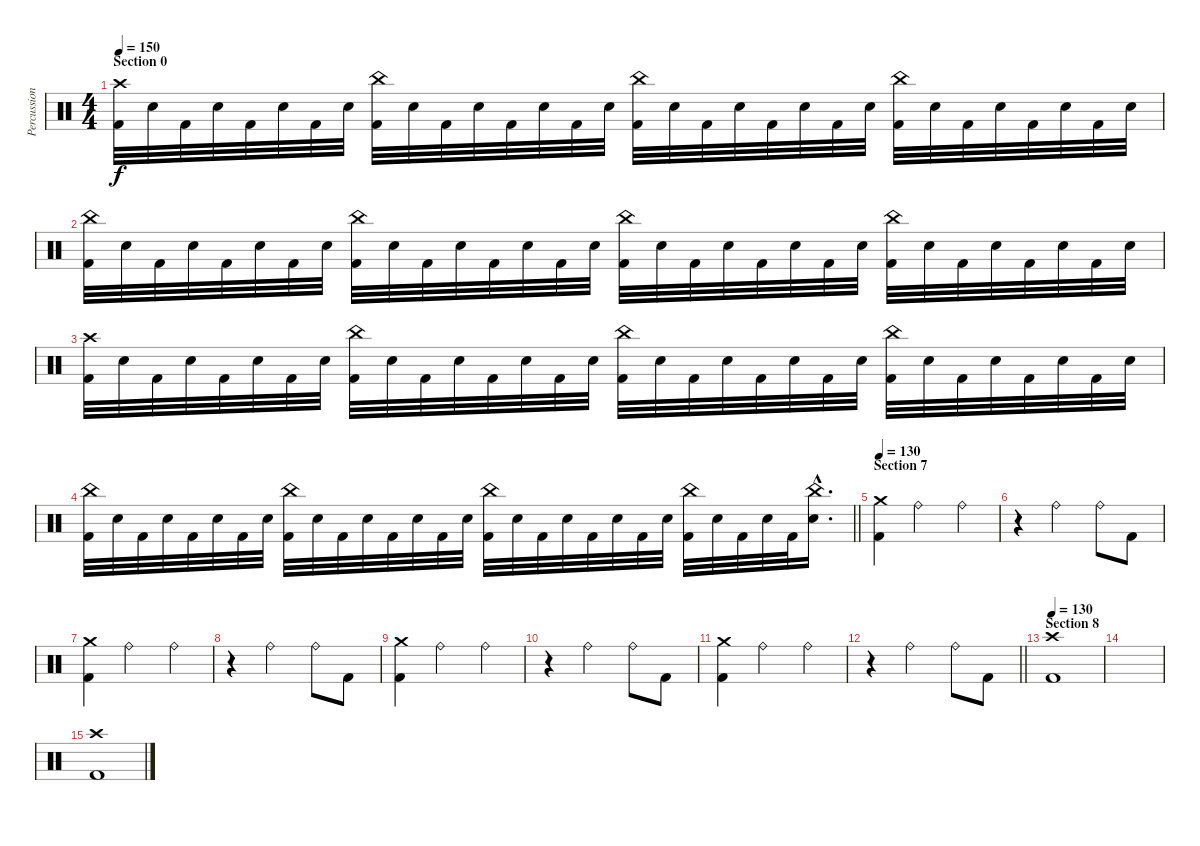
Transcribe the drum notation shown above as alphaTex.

\track ("Percussions" "Percussion") {instrument percussion}
\staff {score}
\articulation defaults
\ts (4 4)
\section ("" "Section 0")
\tempo 150
\clef neutral
\ks c
("Crash high (hit)" "Kick (hit) 2").32{dy f} "Electric Snare (hit)".32 "Kick (hit) 2".32 "Electric Snare (hit)".32 "Kick (hit) 2".32 "Electric Snare (hit)".32 "Kick (hit) 2".32 "Electric Snare (hit)".32 ("China (hit)" "Kick (hit) 2").32 "Electric Snare (hit)".32 "Kick (hit) 2".32 "Electric Snare (hit)".32 "Kick (hit) 2".32 "Electric Snare (hit)".32 "Kick (hit) 2".32 "Electric Snare (hit)".32 ("China (hit)" "Kick (hit) 2").32 "Electric Snare (hit)".32 "Kick (hit) 2".32 "Electric Snare (hit)".32 "Kick (hit) 2".32 "Electric Snare (hit)".32 "Kick (hit) 2".32 "Electric Snare (hit)".32 ("China (hit)" "Kick (hit) 2").32 "Electric Snare (hit)".32 "Kick (hit) 2".32 "Electric Snare (hit)".32 "Kick (hit) 2".32 "Electric Snare (hit)".32 "Kick (hit) 2".32 "Electric Snare (hit)".32 |
("China (hit)" "Kick (hit) 2").32 "Electric Snare (hit)".32 "Kick (hit) 2".32 "Electric Snare (hit)".32 "Kick (hit) 2".32 "Electric Snare (hit)".32 "Kick (hit) 2".32 "Electric Snare (hit)".32 ("China (hit)" "Kick (hit) 2").32 "Electric Snare (hit)".32 "Kick (hit) 2".32 "Electric Snare (hit)".32 "Kick (hit) 2".32 "Electric Snare (hit)".32 "Kick (hit) 2".32 "Electric Snare (hit)".32 ("China (hit)" "Kick (hit) 2").32 "Electric Snare (hit)".32 "Kick (hit) 2".32 "Electric Snare (hit)".32 "Kick (hit) 2".32 "Electric Snare (hit)".32 "Kick (hit) 2".32 "Electric Snare (hit)".32 ("China (hit)" "Kick (hit) 2").32 "Electric Snare (hit)".32 "Kick (hit) 2".32 "Electric Snare (hit)".32 "Kick (hit) 2".32 "Electric Snare (hit)".32 "Kick (hit) 2".32 "Electric Snare (hit)".32 |
("Crash high (hit)" "Kick (hit) 2").32 "Electric Snare (hit)".32 "Kick (hit) 2".32 "Electric Snare (hit)".32 "Kick (hit) 2".32 "Electric Snare (hit)".32 "Kick (hit) 2".32 "Electric Snare (hit)".32 ("China (hit)" "Kick (hit) 2").32 "Electric Snare (hit)".32 "Kick (hit) 2".32 "Electric Snare (hit)".32 "Kick (hit) 2".32 "Electric Snare (hit)".32 "Kick (hit) 2".32 "Electric Snare (hit)".32 ("China (hit)" "Kick (hit) 2").32 "Electric Snare (hit)".32 "Kick (hit) 2".32 "Electric Snare (hit)".32 "Kick (hit) 2".32 "Electric Snare (hit)".32 "Kick (hit) 2".32 "Electric Snare (hit)".32 ("China (hit)" "Kick (hit) 2").32 "Electric Snare (hit)".32 "Kick (hit) 2".32 "Electric Snare (hit)".32 "Kick (hit) 2".32 "Electric Snare (hit)".32 "Kick (hit) 2".32 "Electric Snare (hit)".32 |
\barLineRight lightlight
("China (hit)" "Kick (hit) 2").32 "Electric Snare (hit)".32 "Kick (hit) 2".32 "Electric Snare (hit)".32 "Kick (hit) 2".32 "Electric Snare (hit)".32 "Kick (hit) 2".32 "Electric Snare (hit)".32 ("China (hit)" "Kick (hit) 2").32 "Electric Snare (hit)".32 "Kick (hit) 2".32 "Electric Snare (hit)".32 "Kick (hit) 2".32 "Electric Snare (hit)".32 "Kick (hit) 2".32 "Electric Snare (hit)".32 ("China (hit)" "Kick (hit) 2").32 "Electric Snare (hit)".32 "Kick (hit) 2".32 "Electric Snare (hit)".32 "Kick (hit) 2".32 "Electric Snare (hit)".32 "Kick (hit) 2".32 "Electric Snare (hit)".32 ("China (hit)" "Kick (hit) 2").32 "Electric Snare (hit)".32 "Kick (hit) 2".32 "Electric Snare (hit)".32 "Kick (hit) 2".32 ("China (hit)"{hac} "Electric Snare (hit)"{hac}).16{d} |
\section ("" "Section 7")
\tempo 130
("Crash medium (hit)" "Kick (hit) 2").4 "Ride (bell)".2 "Ride (bell)".4 |
r.4 "Ride (bell)".2 "Ride (bell)".8 "Kick (hit) 2".8 |
("Crash medium (hit)" "Kick (hit) 2").4 "Ride (bell)".2 "Ride (bell)".4 |
r.4 "Ride (bell)".2 "Ride (bell)".8 "Kick (hit) 2".8 |
("Crash medium (hit)" "Kick (hit) 2").4 "Ride (bell)".2 "Ride (bell)".4 |
r.4 "Ride (bell)".2 "Ride (bell)".8 "Kick (hit) 2".8 |
("Crash medium (hit)" "Kick (hit) 2").4 "Ride (bell)".2 "Ride (bell)".4 |
\barLineRight lightlight
r.4 "Ride (bell)".2 "Ride (bell)".8 "Kick (hit) 2".8 |
\section ("" "Section 8")
\tempo 130
("Crash high (hit)" "Kick (hit) 2").1 |
|
("Crash high (hit)" "Kick (hit) 2").1
